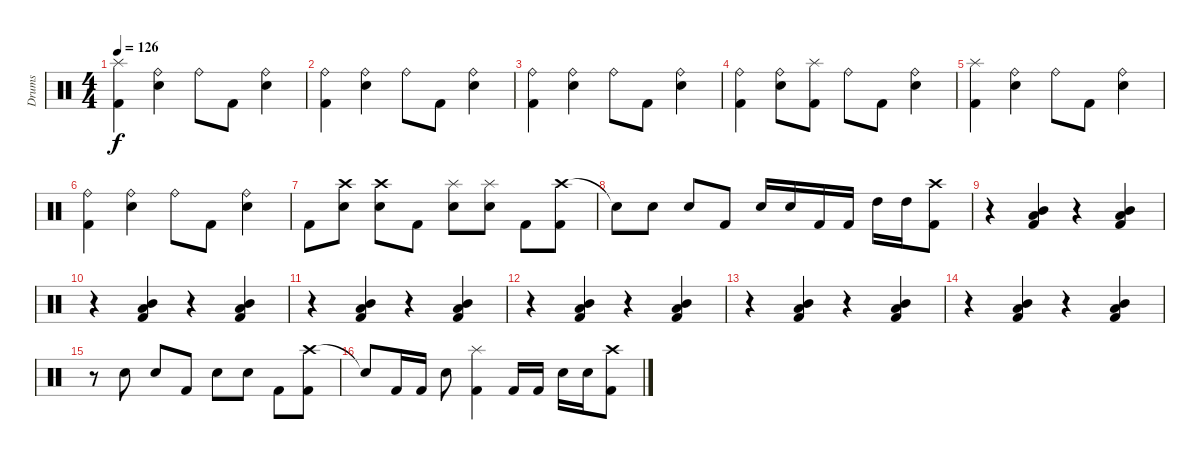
\track ("Drums" "Drums") {instrument percussion}
\staff {score}
\articulation defaults
\ts (4 4)
\tempo 126
\clef neutral
\ks c
("Splash (hit)" "Kick (hit) 2").4{dy f} ("Ride (bell)" "Snare (hit) 2").4 "Ride (bell)".8 "Kick (hit) 2".8 ("Ride (bell)" "Snare (hit) 2").4 |
("Ride (bell)" "Kick (hit) 2").4 ("Ride (bell)" "Snare (hit) 2").4 "Ride (bell)".8 "Kick (hit) 2".8 ("Ride (bell)" "Snare (hit) 2").4 |
("Ride (bell)" "Kick (hit) 2").4 ("Ride (bell)" "Snare (hit) 2").4 "Ride (bell)".8 "Kick (hit) 2".8 ("Ride (bell)" "Snare (hit) 2").4 |
("Ride (bell)" "Kick (hit) 2").4 ("Ride (bell)" "Snare (hit) 2").8 ("Splash (hit)" "Kick (hit) 2").8 "Ride (bell)".8 "Kick (hit) 2".8 ("Ride (bell)" "Snare (hit) 2").4 |
("Splash (hit)" "Kick (hit) 2").4 ("Ride (bell)" "Snare (hit) 2").4 "Ride (bell)".8 "Kick (hit) 2".8 ("Ride (bell)" "Snare (hit) 2").4 |
("Ride (bell)" "Kick (hit) 2").4 ("Ride (bell)" "Snare (hit) 2").4 "Ride (bell)".8 "Kick (hit) 2".8 ("Ride (bell)" "Snare (hit) 2").4 |
"Kick (hit) 2".8 ("Crash high (hit)" "Snare (hit) 2").8 ("Crash high (hit)" "Snare (hit) 2").8 "Kick (hit) 2".8 ("Splash (hit)" "Snare (hit) 2").8 ("Splash (hit)" "Snare (hit) 2").8 "Kick (hit) 2".8 ("Crash high (hit)" "Kick (hit) 2").8 |
"Snare (hit)"{t}.8 "Snare (hit) 2".8 "Snare (hit) 2".8 "Kick (hit) 2".8 "Snare (hit) 2".16 "Snare (hit) 2".16 "Kick (hit) 2".16 "Kick (hit) 2".16 "High Tom (hit)".16 "High Tom (hit)".16 ("Crash high (hit)" "Kick (hit) 2").8 |
r.4 ("Mid Tom (hit)" "Low Tom (hit)" "Kick (hit) 2").4 r.4 ("Mid Tom (hit)" "Low Tom (hit)" "Kick (hit) 2").4 |
r.4 ("Mid Tom (hit)" "Low Tom (hit)" "Kick (hit) 2").4 r.4 ("Mid Tom (hit)" "Low Tom (hit)" "Kick (hit) 2").4 |
r.4 ("Mid Tom (hit)" "Low Tom (hit)" "Kick (hit) 2").4 r.4 ("Mid Tom (hit)" "Low Tom (hit)" "Kick (hit) 2").4 |
r.4 ("Mid Tom (hit)" "Low Tom (hit)" "Kick (hit) 2").4 r.4 ("Mid Tom (hit)" "Low Tom (hit)" "Kick (hit) 2").4 |
r.4 ("Mid Tom (hit)" "Low Tom (hit)" "Kick (hit) 2").4 r.4 ("Mid Tom (hit)" "Low Tom (hit)" "Kick (hit) 2").4 |
r.4 ("Mid Tom (hit)" "Low Tom (hit)" "Kick (hit) 2").4 r.4 ("Mid Tom (hit)" "Low Tom (hit)" "Kick (hit) 2").4 |
r.8 "Snare (hit) 2".8 "Snare (hit) 2".8 "Kick (hit) 2".8 "Snare (hit) 2".8 "Snare (hit) 2".8 "Kick (hit) 2".8 ("Crash high (hit)" "Kick (hit) 2").8 |
"Snare (hit)"{t}.8 "Kick (hit) 2".16 "Kick (hit) 2".16 "Snare (hit) 2".8 ("Splash (hit)" "Kick (hit) 2").4 "Kick (hit) 2".16 "Kick (hit) 2".16 "Snare (hit) 2".16 "Snare (hit) 2".16 ("Crash high (hit)" "Kick (hit) 2").8
